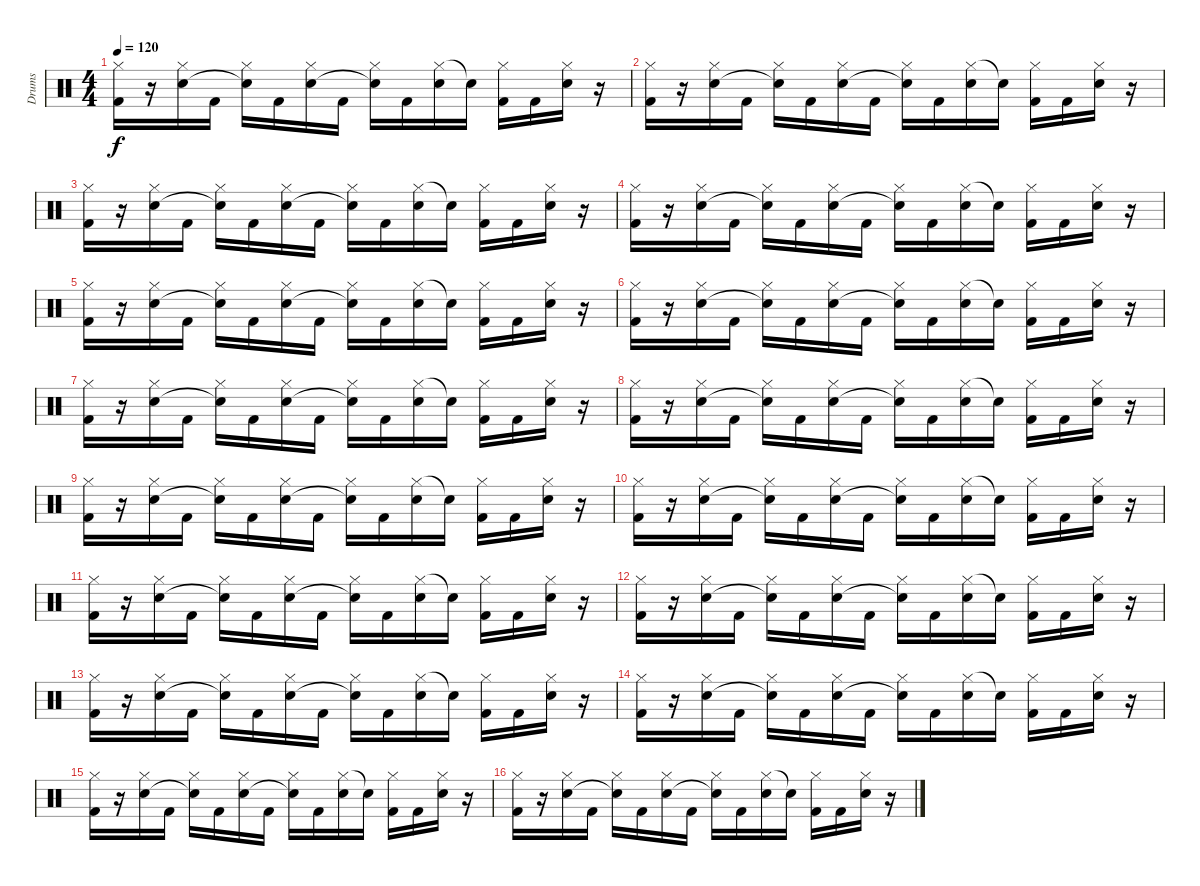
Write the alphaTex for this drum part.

\track ("Drums" "Drums") {instrument percussion}
\staff {score}
\articulation defaults
\ts (4 4)
\tempo 120
\clef neutral
\ks c
("Hi-Hat (closed)" "Kick (hit) 2").16{dy f} r.16 ("Hi-Hat (closed)" "Electric Snare (hit)").16 "Kick (hit) 2".16 ("Hi-Hat (closed)" "Snare (hit)"{t}).16 "Kick (hit) 2".16 ("Hi-Hat (closed)" "Electric Snare (hit)").16 "Kick (hit) 2".16 ("Hi-Hat (closed)" "Snare (hit)"{t}).16 "Kick (hit) 2".16 ("Hi-Hat (closed)" "Electric Snare (hit)").16 "Snare (hit)"{t}.16 ("Hi-Hat (closed)" "Kick (hit) 2").16 "Kick (hit) 2".16 ("Hi-Hat (closed)" "Electric Snare (hit)").16 r.16 |
("Hi-Hat (closed)" "Kick (hit) 2").16 r.16 ("Hi-Hat (closed)" "Electric Snare (hit)").16 "Kick (hit) 2".16 ("Hi-Hat (closed)" "Snare (hit)"{t}).16 "Kick (hit) 2".16 ("Hi-Hat (closed)" "Electric Snare (hit)").16 "Kick (hit) 2".16 ("Hi-Hat (closed)" "Snare (hit)"{t}).16 "Kick (hit) 2".16 ("Hi-Hat (closed)" "Electric Snare (hit)").16 "Snare (hit)"{t}.16 ("Hi-Hat (closed)" "Kick (hit) 2").16 "Kick (hit) 2".16 ("Hi-Hat (closed)" "Electric Snare (hit)").16 r.16 |
("Hi-Hat (closed)" "Kick (hit) 2").16 r.16 ("Hi-Hat (closed)" "Electric Snare (hit)").16 "Kick (hit) 2".16 ("Hi-Hat (closed)" "Snare (hit)"{t}).16 "Kick (hit) 2".16 ("Hi-Hat (closed)" "Electric Snare (hit)").16 "Kick (hit) 2".16 ("Hi-Hat (closed)" "Snare (hit)"{t}).16 "Kick (hit) 2".16 ("Hi-Hat (closed)" "Electric Snare (hit)").16 "Snare (hit)"{t}.16 ("Hi-Hat (closed)" "Kick (hit) 2").16 "Kick (hit) 2".16 ("Hi-Hat (closed)" "Electric Snare (hit)").16 r.16 |
("Hi-Hat (closed)" "Kick (hit) 2").16 r.16 ("Hi-Hat (closed)" "Electric Snare (hit)").16 "Kick (hit) 2".16 ("Hi-Hat (closed)" "Snare (hit)"{t}).16 "Kick (hit) 2".16 ("Hi-Hat (closed)" "Electric Snare (hit)").16 "Kick (hit) 2".16 ("Hi-Hat (closed)" "Snare (hit)"{t}).16 "Kick (hit) 2".16 ("Hi-Hat (closed)" "Electric Snare (hit)").16 "Snare (hit)"{t}.16 ("Hi-Hat (closed)" "Kick (hit) 2").16 "Kick (hit) 2".16 ("Hi-Hat (closed)" "Electric Snare (hit)").16 r.16 |
("Hi-Hat (closed)" "Kick (hit) 2").16 r.16 ("Hi-Hat (closed)" "Electric Snare (hit)").16 "Kick (hit) 2".16 ("Hi-Hat (closed)" "Snare (hit)"{t}).16 "Kick (hit) 2".16 ("Hi-Hat (closed)" "Electric Snare (hit)").16 "Kick (hit) 2".16 ("Hi-Hat (closed)" "Snare (hit)"{t}).16 "Kick (hit) 2".16 ("Hi-Hat (closed)" "Electric Snare (hit)").16 "Snare (hit)"{t}.16 ("Hi-Hat (closed)" "Kick (hit) 2").16 "Kick (hit) 2".16 ("Hi-Hat (closed)" "Electric Snare (hit)").16 r.16 |
("Hi-Hat (closed)" "Kick (hit) 2").16 r.16 ("Hi-Hat (closed)" "Electric Snare (hit)").16 "Kick (hit) 2".16 ("Hi-Hat (closed)" "Snare (hit)"{t}).16 "Kick (hit) 2".16 ("Hi-Hat (closed)" "Electric Snare (hit)").16 "Kick (hit) 2".16 ("Hi-Hat (closed)" "Snare (hit)"{t}).16 "Kick (hit) 2".16 ("Hi-Hat (closed)" "Electric Snare (hit)").16 "Snare (hit)"{t}.16 ("Hi-Hat (closed)" "Kick (hit) 2").16 "Kick (hit) 2".16 ("Hi-Hat (closed)" "Electric Snare (hit)").16 r.16 |
("Hi-Hat (closed)" "Kick (hit) 2").16 r.16 ("Hi-Hat (closed)" "Electric Snare (hit)").16 "Kick (hit) 2".16 ("Hi-Hat (closed)" "Snare (hit)"{t}).16 "Kick (hit) 2".16 ("Hi-Hat (closed)" "Electric Snare (hit)").16 "Kick (hit) 2".16 ("Hi-Hat (closed)" "Snare (hit)"{t}).16 "Kick (hit) 2".16 ("Hi-Hat (closed)" "Electric Snare (hit)").16 "Snare (hit)"{t}.16 ("Hi-Hat (closed)" "Kick (hit) 2").16 "Kick (hit) 2".16 ("Hi-Hat (closed)" "Electric Snare (hit)").16 r.16 |
("Hi-Hat (closed)" "Kick (hit) 2").16 r.16 ("Hi-Hat (closed)" "Electric Snare (hit)").16 "Kick (hit) 2".16 ("Hi-Hat (closed)" "Snare (hit)"{t}).16 "Kick (hit) 2".16 ("Hi-Hat (closed)" "Electric Snare (hit)").16 "Kick (hit) 2".16 ("Hi-Hat (closed)" "Snare (hit)"{t}).16 "Kick (hit) 2".16 ("Hi-Hat (closed)" "Electric Snare (hit)").16 "Snare (hit)"{t}.16 ("Hi-Hat (closed)" "Kick (hit) 2").16 "Kick (hit) 2".16 ("Hi-Hat (closed)" "Electric Snare (hit)").16 r.16 |
("Hi-Hat (closed)" "Kick (hit) 2").16 r.16 ("Hi-Hat (closed)" "Electric Snare (hit)").16 "Kick (hit) 2".16 ("Hi-Hat (closed)" "Snare (hit)"{t}).16 "Kick (hit) 2".16 ("Hi-Hat (closed)" "Electric Snare (hit)").16 "Kick (hit) 2".16 ("Hi-Hat (closed)" "Snare (hit)"{t}).16 "Kick (hit) 2".16 ("Hi-Hat (closed)" "Electric Snare (hit)").16 "Snare (hit)"{t}.16 ("Hi-Hat (closed)" "Kick (hit) 2").16 "Kick (hit) 2".16 ("Hi-Hat (closed)" "Electric Snare (hit)").16 r.16 |
("Hi-Hat (closed)" "Kick (hit) 2").16 r.16 ("Hi-Hat (closed)" "Electric Snare (hit)").16 "Kick (hit) 2".16 ("Hi-Hat (closed)" "Snare (hit)"{t}).16 "Kick (hit) 2".16 ("Hi-Hat (closed)" "Electric Snare (hit)").16 "Kick (hit) 2".16 ("Hi-Hat (closed)" "Snare (hit)"{t}).16 "Kick (hit) 2".16 ("Hi-Hat (closed)" "Electric Snare (hit)").16 "Snare (hit)"{t}.16 ("Hi-Hat (closed)" "Kick (hit) 2").16 "Kick (hit) 2".16 ("Hi-Hat (closed)" "Electric Snare (hit)").16 r.16 |
("Hi-Hat (closed)" "Kick (hit) 2").16 r.16 ("Hi-Hat (closed)" "Electric Snare (hit)").16 "Kick (hit) 2".16 ("Hi-Hat (closed)" "Snare (hit)"{t}).16 "Kick (hit) 2".16 ("Hi-Hat (closed)" "Electric Snare (hit)").16 "Kick (hit) 2".16 ("Hi-Hat (closed)" "Snare (hit)"{t}).16 "Kick (hit) 2".16 ("Hi-Hat (closed)" "Electric Snare (hit)").16 "Snare (hit)"{t}.16 ("Hi-Hat (closed)" "Kick (hit) 2").16 "Kick (hit) 2".16 ("Hi-Hat (closed)" "Electric Snare (hit)").16 r.16 |
("Hi-Hat (closed)" "Kick (hit) 2").16 r.16 ("Hi-Hat (closed)" "Electric Snare (hit)").16 "Kick (hit) 2".16 ("Hi-Hat (closed)" "Snare (hit)"{t}).16 "Kick (hit) 2".16 ("Hi-Hat (closed)" "Electric Snare (hit)").16 "Kick (hit) 2".16 ("Hi-Hat (closed)" "Snare (hit)"{t}).16 "Kick (hit) 2".16 ("Hi-Hat (closed)" "Electric Snare (hit)").16 "Snare (hit)"{t}.16 ("Hi-Hat (closed)" "Kick (hit) 2").16 "Kick (hit) 2".16 ("Hi-Hat (closed)" "Electric Snare (hit)").16 r.16 |
("Hi-Hat (closed)" "Kick (hit) 2").16 r.16 ("Hi-Hat (closed)" "Electric Snare (hit)").16 "Kick (hit) 2".16 ("Hi-Hat (closed)" "Snare (hit)"{t}).16 "Kick (hit) 2".16 ("Hi-Hat (closed)" "Electric Snare (hit)").16 "Kick (hit) 2".16 ("Hi-Hat (closed)" "Snare (hit)"{t}).16 "Kick (hit) 2".16 ("Hi-Hat (closed)" "Electric Snare (hit)").16 "Snare (hit)"{t}.16 ("Hi-Hat (closed)" "Kick (hit) 2").16 "Kick (hit) 2".16 ("Hi-Hat (closed)" "Electric Snare (hit)").16 r.16 |
("Hi-Hat (closed)" "Kick (hit) 2").16 r.16 ("Hi-Hat (closed)" "Electric Snare (hit)").16 "Kick (hit) 2".16 ("Hi-Hat (closed)" "Snare (hit)"{t}).16 "Kick (hit) 2".16 ("Hi-Hat (closed)" "Electric Snare (hit)").16 "Kick (hit) 2".16 ("Hi-Hat (closed)" "Snare (hit)"{t}).16 "Kick (hit) 2".16 ("Hi-Hat (closed)" "Electric Snare (hit)").16 "Snare (hit)"{t}.16 ("Hi-Hat (closed)" "Kick (hit) 2").16 "Kick (hit) 2".16 ("Hi-Hat (closed)" "Electric Snare (hit)").16 r.16 |
("Hi-Hat (closed)" "Kick (hit) 2").16 r.16 ("Hi-Hat (closed)" "Electric Snare (hit)").16 "Kick (hit) 2".16 ("Hi-Hat (closed)" "Snare (hit)"{t}).16 "Kick (hit) 2".16 ("Hi-Hat (closed)" "Electric Snare (hit)").16 "Kick (hit) 2".16 ("Hi-Hat (closed)" "Snare (hit)"{t}).16 "Kick (hit) 2".16 ("Hi-Hat (closed)" "Electric Snare (hit)").16 "Snare (hit)"{t}.16 ("Hi-Hat (closed)" "Kick (hit) 2").16 "Kick (hit) 2".16 ("Hi-Hat (closed)" "Electric Snare (hit)").16 r.16 |
("Hi-Hat (closed)" "Kick (hit) 2").16 r.16 ("Hi-Hat (closed)" "Electric Snare (hit)").16 "Kick (hit) 2".16 ("Hi-Hat (closed)" "Snare (hit)"{t}).16 "Kick (hit) 2".16 ("Hi-Hat (closed)" "Electric Snare (hit)").16 "Kick (hit) 2".16 ("Hi-Hat (closed)" "Snare (hit)"{t}).16 "Kick (hit) 2".16 ("Hi-Hat (closed)" "Electric Snare (hit)").16 "Snare (hit)"{t}.16 ("Hi-Hat (closed)" "Kick (hit) 2").16 "Kick (hit) 2".16 ("Hi-Hat (closed)" "Electric Snare (hit)").16 r.16
